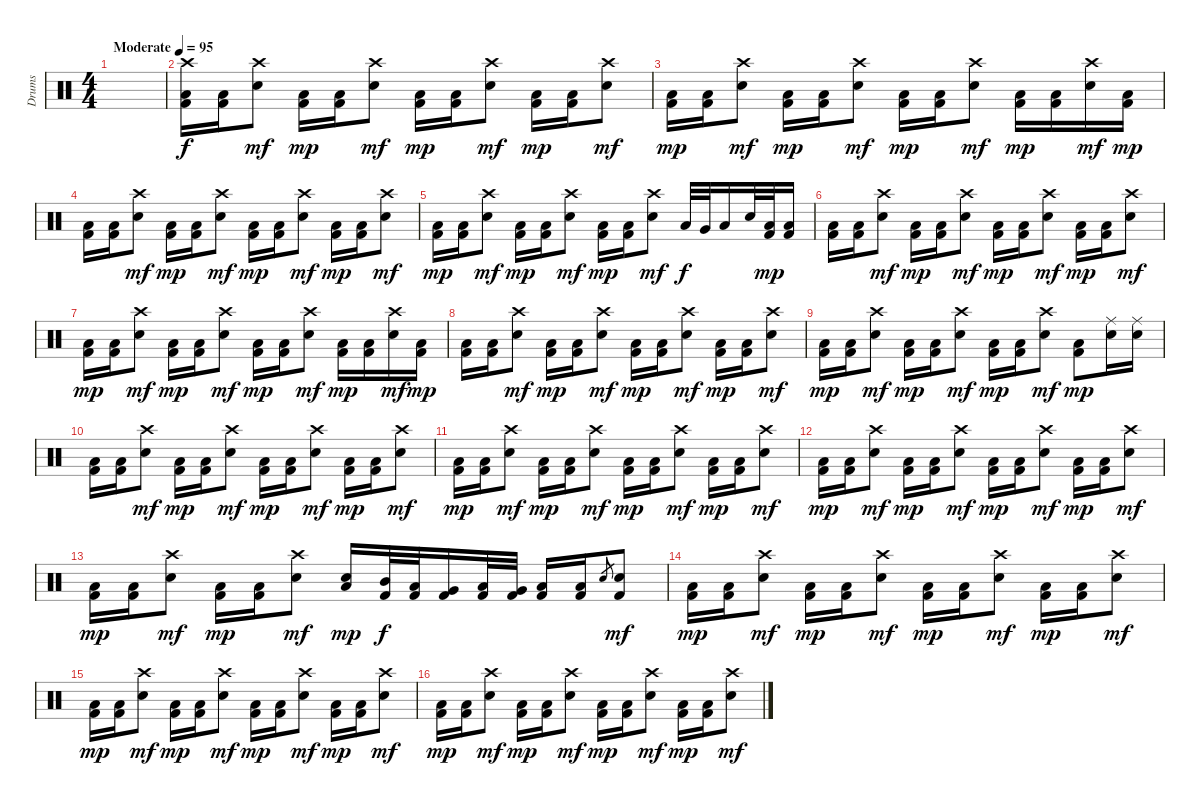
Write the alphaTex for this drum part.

\track ("Drums" "Drums") {instrument percussion}
\staff {score}
\articulation defaults
\ts (4 4)
\tempo (95 "Moderate")
\clef neutral
\ks c
|
("Crash high (hit)" "Kick (hit) 2" "Low Floor Tom (hit)").16 ("Kick (hit) 2" "Low Floor Tom (hit)").16 ("Crash high (hit)" "Snare (hit) 2").8{dy mf} ("Kick (hit) 2" "Low Floor Tom (hit)").16{dy mp} ("Kick (hit) 2" "Low Floor Tom (hit)").16 ("Crash high (hit)" "Snare (hit) 2").8{dy mf} ("Kick (hit) 2" "Low Floor Tom (hit)").16{dy mp} ("Kick (hit) 2" "Low Floor Tom (hit)").16 ("Crash high (hit)" "Snare (hit) 2").8{dy mf} ("Kick (hit) 2" "Low Floor Tom (hit)").16{dy mp} ("Kick (hit) 2" "Low Floor Tom (hit)").16 ("Crash high (hit)" "Snare (hit) 2").8{dy mf} |
("Kick (hit) 2" "Low Floor Tom (hit)").16{dy mp} ("Kick (hit) 2" "Low Floor Tom (hit)").16 ("Crash high (hit)" "Snare (hit) 2").8{dy mf} ("Kick (hit) 2" "Low Floor Tom (hit)").16{dy mp} ("Kick (hit) 2" "Low Floor Tom (hit)").16 ("Crash high (hit)" "Snare (hit) 2").8{dy mf} ("Kick (hit) 2" "Low Floor Tom (hit)").16{dy mp} ("Kick (hit) 2" "Low Floor Tom (hit)").16 ("Crash high (hit)" "Snare (hit) 2").8{dy mf} ("Kick (hit) 2" "Low Floor Tom (hit)").16{dy mp} ("Kick (hit) 2" "Low Floor Tom (hit)").16 ("Crash high (hit)" "Snare (hit) 2").16{dy mf} ("Kick (hit) 2" "Low Floor Tom (hit)").16{dy mp} |
("Kick (hit) 2" "Low Floor Tom (hit)").16 ("Kick (hit) 2" "Low Floor Tom (hit)").16 ("Crash high (hit)" "Snare (hit) 2").8{dy mf} ("Kick (hit) 2" "Low Floor Tom (hit)").16{dy mp} ("Kick (hit) 2" "Low Floor Tom (hit)").16 ("Crash high (hit)" "Snare (hit) 2").8{dy mf} ("Kick (hit) 2" "Low Floor Tom (hit)").16{dy mp} ("Kick (hit) 2" "Low Floor Tom (hit)").16 ("Crash high (hit)" "Snare (hit) 2").8{dy mf} ("Kick (hit) 2" "Low Floor Tom (hit)").16{dy mp} ("Kick (hit) 2" "Low Floor Tom (hit)").16 ("Crash high (hit)" "Snare (hit) 2").8{dy mf} |
("Kick (hit) 2" "Low Floor Tom (hit)").16{dy mp} ("Kick (hit) 2" "Low Floor Tom (hit)").16 ("Crash high (hit)" "Snare (hit) 2").8{dy mf} ("Kick (hit) 2" "Low Floor Tom (hit)").16{dy mp} ("Kick (hit) 2" "Low Floor Tom (hit)").16 ("Crash high (hit)" "Snare (hit) 2").8{dy mf} ("Kick (hit) 2" "Low Floor Tom (hit)").16{dy mp} ("Kick (hit) 2" "Low Floor Tom (hit)").16 ("Crash high (hit)" "Snare (hit) 2").8{dy mf} "Low Tom (hit)".32{dy f} "Very Low Tom (hit)".32 "Low Floor Tom (hit)".16 "Snare (hit) 2".32 ("Kick (hit) 2" "Low Floor Tom (hit)").32{dy mp} ("Kick (hit) 2" "Low Floor Tom (hit)").16 |
("Kick (hit) 2" "Low Floor Tom (hit)").16 ("Kick (hit) 2" "Low Floor Tom (hit)").16 ("Crash high (hit)" "Snare (hit) 2").8{dy mf} ("Kick (hit) 2" "Low Floor Tom (hit)").16{dy mp} ("Kick (hit) 2" "Low Floor Tom (hit)").16 ("Crash high (hit)" "Snare (hit) 2").8{dy mf} ("Kick (hit) 2" "Low Floor Tom (hit)").16{dy mp} ("Kick (hit) 2" "Low Floor Tom (hit)").16 ("Crash high (hit)" "Snare (hit) 2").8{dy mf} ("Kick (hit) 2" "Low Floor Tom (hit)").16{dy mp} ("Kick (hit) 2" "Low Floor Tom (hit)").16 ("Crash high (hit)" "Snare (hit) 2").8{dy mf} |
("Kick (hit) 2" "Low Floor Tom (hit)").16{dy mp} ("Kick (hit) 2" "Low Floor Tom (hit)").16 ("Crash high (hit)" "Snare (hit) 2").8{dy mf} ("Kick (hit) 2" "Low Floor Tom (hit)").16{dy mp} ("Kick (hit) 2" "Low Floor Tom (hit)").16 ("Crash high (hit)" "Snare (hit) 2").8{dy mf} ("Kick (hit) 2" "Low Floor Tom (hit)").16{dy mp} ("Kick (hit) 2" "Low Floor Tom (hit)").16 ("Crash high (hit)" "Snare (hit) 2").8{dy mf} ("Kick (hit) 2" "Low Floor Tom (hit)").16{dy mp} ("Kick (hit) 2" "Low Floor Tom (hit)").16 ("Crash high (hit)" "Snare (hit) 2").16{dy mf} ("Kick (hit) 2" "Low Floor Tom (hit)").16{dy mp} |
("Kick (hit) 2" "Low Floor Tom (hit)").16 ("Kick (hit) 2" "Low Floor Tom (hit)").16 ("Crash high (hit)" "Snare (hit) 2").8{dy mf} ("Kick (hit) 2" "Low Floor Tom (hit)").16{dy mp} ("Kick (hit) 2" "Low Floor Tom (hit)").16 ("Crash high (hit)" "Snare (hit) 2").8{dy mf} ("Kick (hit) 2" "Low Floor Tom (hit)").16{dy mp} ("Kick (hit) 2" "Low Floor Tom (hit)").16 ("Crash high (hit)" "Snare (hit) 2").8{dy mf} ("Kick (hit) 2" "Low Floor Tom (hit)").16{dy mp} ("Kick (hit) 2" "Low Floor Tom (hit)").16 ("Crash high (hit)" "Snare (hit) 2").8{dy mf} |
("Kick (hit) 2" "Low Floor Tom (hit)").16{dy mp} ("Kick (hit) 2" "Low Floor Tom (hit)").16 ("Crash high (hit)" "Snare (hit) 2").8{dy mf} ("Kick (hit) 2" "Low Floor Tom (hit)").16{dy mp} ("Kick (hit) 2" "Low Floor Tom (hit)").16 ("Crash high (hit)" "Snare (hit) 2").8{dy mf} ("Kick (hit) 2" "Low Floor Tom (hit)").16{dy mp} ("Kick (hit) 2" "Low Floor Tom (hit)").16 ("Crash high (hit)" "Snare (hit) 2").8{dy mf} ("Kick (hit) 2" "Low Floor Tom (hit)").8{dy mp} ("Ride (middle)" "Snare (hit) 2").16 ("Ride (middle)" "Snare (hit) 2").16 |
("Kick (hit) 2" "Low Floor Tom (hit)").16 ("Kick (hit) 2" "Low Floor Tom (hit)").16 ("Crash high (hit)" "Snare (hit) 2").8{dy mf} ("Kick (hit) 2" "Low Floor Tom (hit)").16{dy mp} ("Kick (hit) 2" "Low Floor Tom (hit)").16 ("Crash high (hit)" "Snare (hit) 2").8{dy mf} ("Kick (hit) 2" "Low Floor Tom (hit)").16{dy mp} ("Kick (hit) 2" "Low Floor Tom (hit)").16 ("Crash high (hit)" "Snare (hit) 2").8{dy mf} ("Kick (hit) 2" "Low Floor Tom (hit)").16{dy mp} ("Kick (hit) 2" "Low Floor Tom (hit)").16 ("Crash high (hit)" "Snare (hit) 2").8{dy mf} |
("Kick (hit) 2" "Low Floor Tom (hit)").16{dy mp} ("Kick (hit) 2" "Low Floor Tom (hit)").16 ("Crash high (hit)" "Snare (hit) 2").8{dy mf} ("Kick (hit) 2" "Low Floor Tom (hit)").16{dy mp} ("Kick (hit) 2" "Low Floor Tom (hit)").16 ("Crash high (hit)" "Snare (hit) 2").8{dy mf} ("Kick (hit) 2" "Low Floor Tom (hit)").16{dy mp} ("Kick (hit) 2" "Low Floor Tom (hit)").16 ("Crash high (hit)" "Snare (hit) 2").8{dy mf} ("Kick (hit) 2" "Low Floor Tom (hit)").16{dy mp} ("Kick (hit) 2" "Low Floor Tom (hit)").16 ("Crash high (hit)" "Snare (hit) 2").8{dy mf} |
("Kick (hit) 2" "Low Floor Tom (hit)").16{dy mp} ("Kick (hit) 2" "Low Floor Tom (hit)").16 ("Crash high (hit)" "Snare (hit) 2").8{dy mf} ("Kick (hit) 2" "Low Floor Tom (hit)").16{dy mp} ("Kick (hit) 2" "Low Floor Tom (hit)").16 ("Crash high (hit)" "Snare (hit) 2").8{dy mf} ("Kick (hit) 2" "Low Floor Tom (hit)").16{dy mp} ("Kick (hit) 2" "Low Floor Tom (hit)").16 ("Crash high (hit)" "Snare (hit) 2").8{dy mf} ("Kick (hit) 2" "Low Floor Tom (hit)").16{dy mp} ("Kick (hit) 2" "Low Floor Tom (hit)").16 ("Crash high (hit)" "Snare (hit) 2").8{dy mf} |
("Kick (hit) 2" "Low Floor Tom (hit)").16{dy mp} ("Kick (hit) 2" "Low Floor Tom (hit)").16 ("Crash high (hit)" "Snare (hit) 2").8{dy mf} ("Kick (hit) 2" "Low Floor Tom (hit)").16{dy mp} ("Kick (hit) 2" "Low Floor Tom (hit)").16 ("Crash high (hit)" "Snare (hit) 2").8{dy mf} ("Snare (hit) 2" "Low Floor Tom (hit)").16{dy mp} ("Mid Tom (hit)" "Kick (hit) 2").32{dy f} ("Low Tom (hit)" "Kick (hit) 2").32 ("Very Low Tom (hit)" "Kick (hit) 2").16 ("Low Tom (hit)" "Kick (hit) 2").32 ("Very Low Tom (hit)" "Kick (hit) 2").32 ("Low Floor Tom (hit)" "Kick (hit) 2").16 ("Kick (hit) 2" "Low Floor Tom (hit)").16 "Snare (hit) 2".8{gr} ("Snare (hit) 2" "Kick (hit) 2").8{dy mf} |
("Kick (hit) 2" "Low Floor Tom (hit)").16{dy mp} ("Kick (hit) 2" "Low Floor Tom (hit)").16 ("Crash high (hit)" "Snare (hit) 2").8{dy mf} ("Kick (hit) 2" "Low Floor Tom (hit)").16{dy mp} ("Kick (hit) 2" "Low Floor Tom (hit)").16 ("Crash high (hit)" "Snare (hit) 2").8{dy mf} ("Kick (hit) 2" "Low Floor Tom (hit)").16{dy mp} ("Kick (hit) 2" "Low Floor Tom (hit)").16 ("Crash high (hit)" "Snare (hit) 2").8{dy mf} ("Kick (hit) 2" "Low Floor Tom (hit)").16{dy mp} ("Kick (hit) 2" "Low Floor Tom (hit)").16 ("Crash high (hit)" "Snare (hit) 2").8{dy mf} |
("Kick (hit) 2" "Low Floor Tom (hit)").16{dy mp} ("Kick (hit) 2" "Low Floor Tom (hit)").16 ("Crash high (hit)" "Snare (hit) 2").8{dy mf} ("Kick (hit) 2" "Low Floor Tom (hit)").16{dy mp} ("Kick (hit) 2" "Low Floor Tom (hit)").16 ("Crash high (hit)" "Snare (hit) 2").8{dy mf} ("Kick (hit) 2" "Low Floor Tom (hit)").16{dy mp} ("Kick (hit) 2" "Low Floor Tom (hit)").16 ("Crash high (hit)" "Snare (hit) 2").8{dy mf} ("Kick (hit) 2" "Low Floor Tom (hit)").16{dy mp} ("Kick (hit) 2" "Low Floor Tom (hit)").16 ("Crash high (hit)" "Snare (hit) 2").8{dy mf} |
("Kick (hit) 2" "Low Floor Tom (hit)").16{dy mp} ("Kick (hit) 2" "Low Floor Tom (hit)").16 ("Crash high (hit)" "Snare (hit) 2").8{dy mf} ("Kick (hit) 2" "Low Floor Tom (hit)").16{dy mp} ("Kick (hit) 2" "Low Floor Tom (hit)").16 ("Crash high (hit)" "Snare (hit) 2").8{dy mf} ("Kick (hit) 2" "Low Floor Tom (hit)").16{dy mp} ("Kick (hit) 2" "Low Floor Tom (hit)").16 ("Crash high (hit)" "Snare (hit) 2").8{dy mf} ("Kick (hit) 2" "Low Floor Tom (hit)").16{dy mp} ("Kick (hit) 2" "Low Floor Tom (hit)").16 ("Crash high (hit)" "Snare (hit) 2").8{dy mf}
